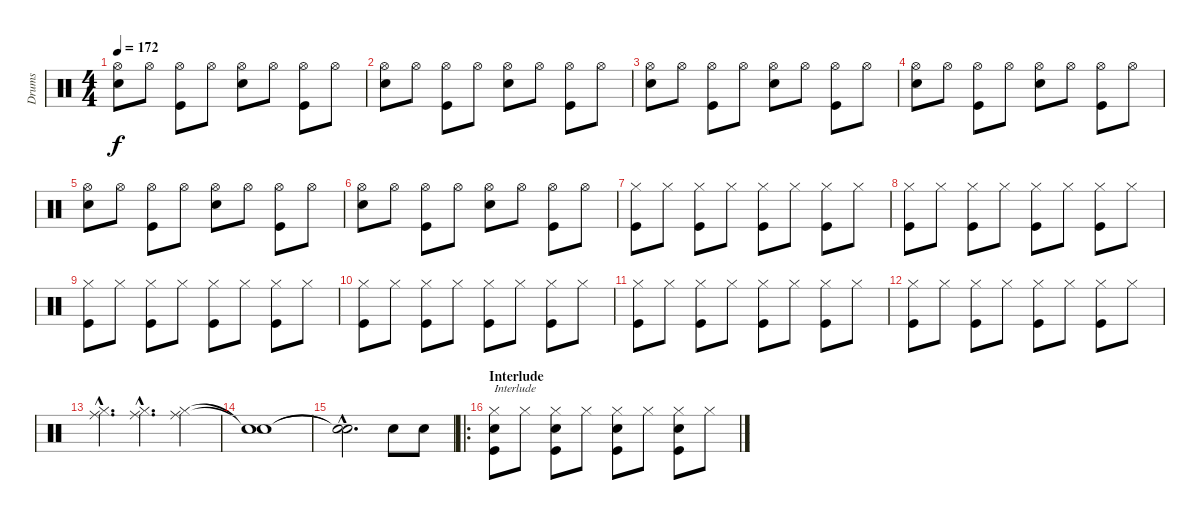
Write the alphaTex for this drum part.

\track ("Drums" "Drums") {instrument percussion}
\staff {score}
\articulation defaults
\ts (4 4)
\tempo 172
\clef neutral
\ks c
("Snare (hit) 2" "Hi-Hat (open)").8{dy f} "Hi-Hat (open)".8 ("Kick (hit)" "Hi-Hat (open)").8 "Hi-Hat (open)".8 ("Snare (hit) 2" "Hi-Hat (open)").8 "Hi-Hat (open)".8 ("Kick (hit)" "Hi-Hat (open)").8 "Hi-Hat (open)".8 |
("Snare (hit) 2" "Hi-Hat (open)").8 "Hi-Hat (open)".8 ("Kick (hit)" "Hi-Hat (open)").8 "Hi-Hat (open)".8 ("Snare (hit) 2" "Hi-Hat (open)").8 "Hi-Hat (open)".8 ("Kick (hit)" "Hi-Hat (open)").8 "Hi-Hat (open)".8 |
("Snare (hit) 2" "Hi-Hat (open)").8 "Hi-Hat (open)".8 ("Kick (hit)" "Hi-Hat (open)").8 "Hi-Hat (open)".8 ("Snare (hit) 2" "Hi-Hat (open)").8 "Hi-Hat (open)".8 ("Kick (hit)" "Hi-Hat (open)").8 "Hi-Hat (open)".8 |
("Snare (hit) 2" "Hi-Hat (open)").8 "Hi-Hat (open)".8 ("Kick (hit)" "Hi-Hat (open)").8 "Hi-Hat (open)".8 ("Snare (hit) 2" "Hi-Hat (open)").8 "Hi-Hat (open)".8 ("Kick (hit)" "Hi-Hat (open)").8 "Hi-Hat (open)".8 |
("Snare (hit) 2" "Hi-Hat (open)").8 "Hi-Hat (open)".8 ("Kick (hit)" "Hi-Hat (open)").8 "Hi-Hat (open)".8 ("Snare (hit) 2" "Hi-Hat (open)").8 "Hi-Hat (open)".8 ("Kick (hit)" "Hi-Hat (open)").8 "Hi-Hat (open)".8 |
("Snare (hit) 2" "Hi-Hat (open)").8 "Hi-Hat (open)".8 ("Kick (hit)" "Hi-Hat (open)").8 "Hi-Hat (open)".8 ("Snare (hit) 2" "Hi-Hat (open)").8 "Hi-Hat (open)".8 ("Kick (hit)" "Hi-Hat (open)").8 "Hi-Hat (open)".8 |
("Kick (hit)" "Hi-Hat (closed)").8 "Hi-Hat (closed)".8 ("Kick (hit)" "Hi-Hat (closed)").8 "Hi-Hat (closed)".8 ("Kick (hit)" "Hi-Hat (closed)").8 "Hi-Hat (closed)".8 ("Kick (hit)" "Hi-Hat (closed)").8 "Hi-Hat (closed)".8 |
("Kick (hit)" "Hi-Hat (closed)").8 "Hi-Hat (closed)".8 ("Kick (hit)" "Hi-Hat (closed)").8 "Hi-Hat (closed)".8 ("Kick (hit)" "Hi-Hat (closed)").8 "Hi-Hat (closed)".8 ("Kick (hit)" "Hi-Hat (closed)").8 "Hi-Hat (closed)".8 |
("Kick (hit)" "Hi-Hat (closed)").8 "Hi-Hat (closed)".8 ("Kick (hit)" "Hi-Hat (closed)").8 "Hi-Hat (closed)".8 ("Kick (hit)" "Hi-Hat (closed)").8 "Hi-Hat (closed)".8 ("Kick (hit)" "Hi-Hat (closed)").8 "Hi-Hat (closed)".8 |
("Kick (hit)" "Hi-Hat (closed)").8 "Hi-Hat (closed)".8 ("Kick (hit)" "Hi-Hat (closed)").8 "Hi-Hat (closed)".8 ("Kick (hit)" "Hi-Hat (closed)").8 "Hi-Hat (closed)".8 ("Kick (hit)" "Hi-Hat (closed)").8 "Hi-Hat (closed)".8 |
("Kick (hit)" "Hi-Hat (closed)").8 "Hi-Hat (closed)".8 ("Kick (hit)" "Hi-Hat (closed)").8 "Hi-Hat (closed)".8 ("Kick (hit)" "Hi-Hat (closed)").8 "Hi-Hat (closed)".8 ("Kick (hit)" "Hi-Hat (closed)").8 "Hi-Hat (closed)".8 |
("Kick (hit)" "Hi-Hat (closed)").8 "Hi-Hat (closed)".8 ("Kick (hit)" "Hi-Hat (closed)").8 "Hi-Hat (closed)".8 ("Kick (hit)" "Hi-Hat (closed)").8 "Hi-Hat (closed)".8 ("Kick (hit)" "Hi-Hat (closed)").8 "Hi-Hat (closed)".8 |
("Ride (middle)"{hac} "Hi-Hat (closed)"{hac}).4{d} ("Ride (middle)"{hac} "Hi-Hat (closed)"{hac}).4{d} ("Ride (middle)" "Hi-Hat (closed)").4 |
("Snare (hit)"{t} "Snare (hit)"{t}).1 |
("Snare (hit)"{hac t} "Snare (hit)"{hac t}).2{d} "Snare (hit) 2".8 "Snare (hit) 2".8 |
\ro
\section ("" "Interlude")
("Kick (hit)" "Snare (hit) 2" "Hi-Hat (closed)").8{txt "Interlude"} "Hi-Hat (closed)".8 ("Kick (hit)" "Snare (hit) 2" "Hi-Hat (closed)").8 "Hi-Hat (closed)".8 ("Kick (hit)" "Snare (hit) 2" "Hi-Hat (closed)").8 "Hi-Hat (closed)".8 ("Kick (hit)" "Snare (hit) 2" "Hi-Hat (closed)").8 "Hi-Hat (closed)".8
